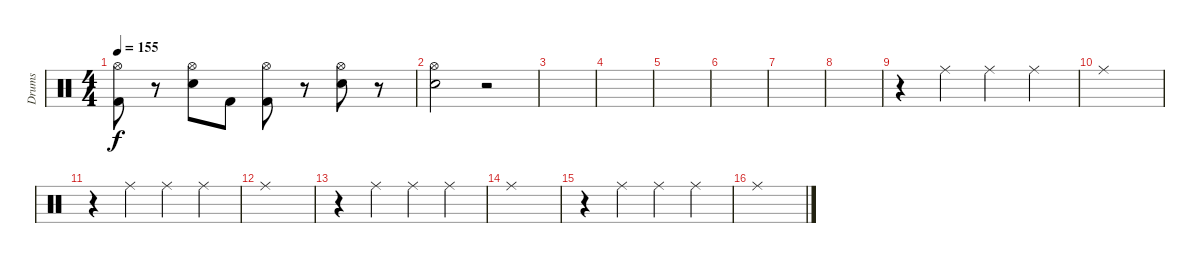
\track ("Drums" "Drums") {instrument percussion}
\staff {score}
\articulation defaults
\ts (4 4)
\tempo 155
\clef neutral
\ks c
("Hi-Hat (open)" "Kick (hit) 2").8{dy f} r.8 ("Snare (hit) 2" "Hi-Hat (open)").8 "Kick (hit) 2".8 ("Hi-Hat (open)" "Kick (hit) 2").8 r.8 ("Snare (hit) 2" "Hi-Hat (open)").8 r.8 |
("Snare (hit) 2" "Hi-Hat (open)").2 r.2 |
|
|
|
|
|
|
r.4 "Ride (middle)".4 "Ride (middle)".4 "Ride (middle)".4 |
"Ride (middle)".1 |
r.4 "Ride (middle)".4 "Ride (middle)".4 "Ride (middle)".4 |
"Ride (middle)".1 |
r.4 "Ride (middle)".4 "Ride (middle)".4 "Ride (middle)".4 |
"Ride (middle)".1 |
r.4 "Ride (middle)".4 "Ride (middle)".4 "Ride (middle)".4 |
"Ride (middle)".1
